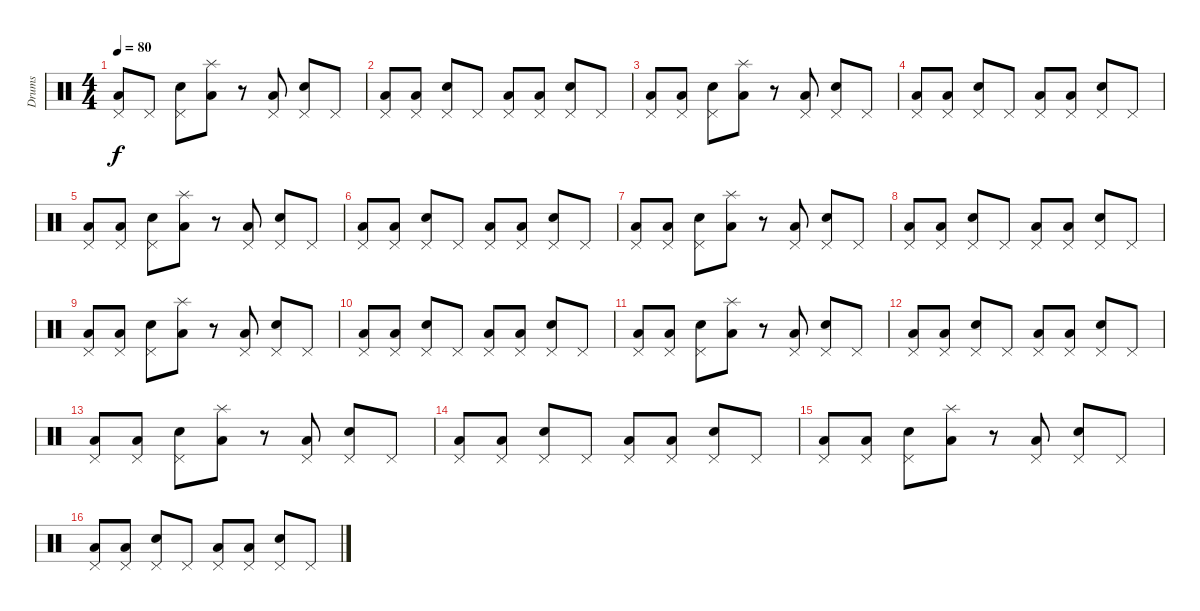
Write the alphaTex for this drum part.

\track ("Drums" "Drums") {instrument percussion}
\staff {score}
\articulation defaults
\ts (4 4)
\tempo 80
\clef neutral
\ks c
("Low Floor Tom (hit)" "Pedal Hi-Hat (hit)").8{dy f} "Pedal Hi-Hat (hit)".8 ("Electric Snare (hit)" "Pedal Hi-Hat (hit)").8 ("Low Floor Tom (hit)" "Splash (hit)").8 r.8 ("Low Floor Tom (hit)" "Pedal Hi-Hat (hit)").8 ("Electric Snare (hit)" "Pedal Hi-Hat (hit)").8 "Pedal Hi-Hat (hit)".8 |
("Low Floor Tom (hit)" "Pedal Hi-Hat (hit)").8 ("Low Floor Tom (hit)" "Pedal Hi-Hat (hit)").8 ("Electric Snare (hit)" "Pedal Hi-Hat (hit)").8 "Pedal Hi-Hat (hit)".8 ("Low Floor Tom (hit)" "Pedal Hi-Hat (hit)").8 ("Low Floor Tom (hit)" "Pedal Hi-Hat (hit)").8 ("Electric Snare (hit)" "Pedal Hi-Hat (hit)").8 "Pedal Hi-Hat (hit)".8 |
("Low Floor Tom (hit)" "Pedal Hi-Hat (hit)").8 ("Low Floor Tom (hit)" "Pedal Hi-Hat (hit)").8 ("Electric Snare (hit)" "Pedal Hi-Hat (hit)").8 ("Low Floor Tom (hit)" "Splash (hit)").8 r.8 ("Low Floor Tom (hit)" "Pedal Hi-Hat (hit)").8 ("Electric Snare (hit)" "Pedal Hi-Hat (hit)").8 "Pedal Hi-Hat (hit)".8 |
("Low Floor Tom (hit)" "Pedal Hi-Hat (hit)").8 ("Low Floor Tom (hit)" "Pedal Hi-Hat (hit)").8 ("Electric Snare (hit)" "Pedal Hi-Hat (hit)").8 "Pedal Hi-Hat (hit)".8 ("Low Floor Tom (hit)" "Pedal Hi-Hat (hit)").8 ("Low Floor Tom (hit)" "Pedal Hi-Hat (hit)").8 ("Electric Snare (hit)" "Pedal Hi-Hat (hit)").8 "Pedal Hi-Hat (hit)".8 |
("Low Floor Tom (hit)" "Pedal Hi-Hat (hit)").8 ("Low Floor Tom (hit)" "Pedal Hi-Hat (hit)").8 ("Electric Snare (hit)" "Pedal Hi-Hat (hit)").8 ("Low Floor Tom (hit)" "Splash (hit)").8 r.8 ("Low Floor Tom (hit)" "Pedal Hi-Hat (hit)").8 ("Electric Snare (hit)" "Pedal Hi-Hat (hit)").8 "Pedal Hi-Hat (hit)".8 |
("Low Floor Tom (hit)" "Pedal Hi-Hat (hit)").8 ("Low Floor Tom (hit)" "Pedal Hi-Hat (hit)").8 ("Electric Snare (hit)" "Pedal Hi-Hat (hit)").8 "Pedal Hi-Hat (hit)".8 ("Low Floor Tom (hit)" "Pedal Hi-Hat (hit)").8 ("Low Floor Tom (hit)" "Pedal Hi-Hat (hit)").8 ("Electric Snare (hit)" "Pedal Hi-Hat (hit)").8 "Pedal Hi-Hat (hit)".8 |
("Low Floor Tom (hit)" "Pedal Hi-Hat (hit)").8 ("Low Floor Tom (hit)" "Pedal Hi-Hat (hit)").8 ("Electric Snare (hit)" "Pedal Hi-Hat (hit)").8 ("Low Floor Tom (hit)" "Splash (hit)").8 r.8 ("Low Floor Tom (hit)" "Pedal Hi-Hat (hit)").8 ("Electric Snare (hit)" "Pedal Hi-Hat (hit)").8 "Pedal Hi-Hat (hit)".8 |
("Low Floor Tom (hit)" "Pedal Hi-Hat (hit)").8 ("Low Floor Tom (hit)" "Pedal Hi-Hat (hit)").8 ("Electric Snare (hit)" "Pedal Hi-Hat (hit)").8 "Pedal Hi-Hat (hit)".8 ("Low Floor Tom (hit)" "Pedal Hi-Hat (hit)").8 ("Low Floor Tom (hit)" "Pedal Hi-Hat (hit)").8 ("Electric Snare (hit)" "Pedal Hi-Hat (hit)").8 "Pedal Hi-Hat (hit)".8 |
("Low Floor Tom (hit)" "Pedal Hi-Hat (hit)").8 ("Low Floor Tom (hit)" "Pedal Hi-Hat (hit)").8 ("Electric Snare (hit)" "Pedal Hi-Hat (hit)").8 ("Low Floor Tom (hit)" "Splash (hit)").8 r.8 ("Low Floor Tom (hit)" "Pedal Hi-Hat (hit)").8 ("Electric Snare (hit)" "Pedal Hi-Hat (hit)").8 "Pedal Hi-Hat (hit)".8 |
("Low Floor Tom (hit)" "Pedal Hi-Hat (hit)").8 ("Low Floor Tom (hit)" "Pedal Hi-Hat (hit)").8 ("Electric Snare (hit)" "Pedal Hi-Hat (hit)").8 "Pedal Hi-Hat (hit)".8 ("Low Floor Tom (hit)" "Pedal Hi-Hat (hit)").8 ("Low Floor Tom (hit)" "Pedal Hi-Hat (hit)").8 ("Electric Snare (hit)" "Pedal Hi-Hat (hit)").8 "Pedal Hi-Hat (hit)".8 |
("Low Floor Tom (hit)" "Pedal Hi-Hat (hit)").8 ("Low Floor Tom (hit)" "Pedal Hi-Hat (hit)").8 ("Electric Snare (hit)" "Pedal Hi-Hat (hit)").8 ("Low Floor Tom (hit)" "Splash (hit)").8 r.8 ("Low Floor Tom (hit)" "Pedal Hi-Hat (hit)").8 ("Electric Snare (hit)" "Pedal Hi-Hat (hit)").8 "Pedal Hi-Hat (hit)".8 |
("Low Floor Tom (hit)" "Pedal Hi-Hat (hit)").8 ("Low Floor Tom (hit)" "Pedal Hi-Hat (hit)").8 ("Electric Snare (hit)" "Pedal Hi-Hat (hit)").8 "Pedal Hi-Hat (hit)".8 ("Low Floor Tom (hit)" "Pedal Hi-Hat (hit)").8 ("Low Floor Tom (hit)" "Pedal Hi-Hat (hit)").8 ("Electric Snare (hit)" "Pedal Hi-Hat (hit)").8 "Pedal Hi-Hat (hit)".8 |
("Low Floor Tom (hit)" "Pedal Hi-Hat (hit)").8 ("Low Floor Tom (hit)" "Pedal Hi-Hat (hit)").8 ("Electric Snare (hit)" "Pedal Hi-Hat (hit)").8 ("Low Floor Tom (hit)" "Splash (hit)").8 r.8 ("Low Floor Tom (hit)" "Pedal Hi-Hat (hit)").8 ("Electric Snare (hit)" "Pedal Hi-Hat (hit)").8 "Pedal Hi-Hat (hit)".8 |
("Low Floor Tom (hit)" "Pedal Hi-Hat (hit)").8 ("Low Floor Tom (hit)" "Pedal Hi-Hat (hit)").8 ("Electric Snare (hit)" "Pedal Hi-Hat (hit)").8 "Pedal Hi-Hat (hit)".8 ("Low Floor Tom (hit)" "Pedal Hi-Hat (hit)").8 ("Low Floor Tom (hit)" "Pedal Hi-Hat (hit)").8 ("Electric Snare (hit)" "Pedal Hi-Hat (hit)").8 "Pedal Hi-Hat (hit)".8 |
("Low Floor Tom (hit)" "Pedal Hi-Hat (hit)").8 ("Low Floor Tom (hit)" "Pedal Hi-Hat (hit)").8 ("Electric Snare (hit)" "Pedal Hi-Hat (hit)").8 ("Low Floor Tom (hit)" "Splash (hit)").8 r.8 ("Low Floor Tom (hit)" "Pedal Hi-Hat (hit)").8 ("Electric Snare (hit)" "Pedal Hi-Hat (hit)").8 "Pedal Hi-Hat (hit)".8 |
("Low Floor Tom (hit)" "Pedal Hi-Hat (hit)").8 ("Low Floor Tom (hit)" "Pedal Hi-Hat (hit)").8 ("Electric Snare (hit)" "Pedal Hi-Hat (hit)").8 "Pedal Hi-Hat (hit)".8 ("Low Floor Tom (hit)" "Pedal Hi-Hat (hit)").8 ("Low Floor Tom (hit)" "Pedal Hi-Hat (hit)").8 ("Electric Snare (hit)" "Pedal Hi-Hat (hit)").8 "Pedal Hi-Hat (hit)".8
